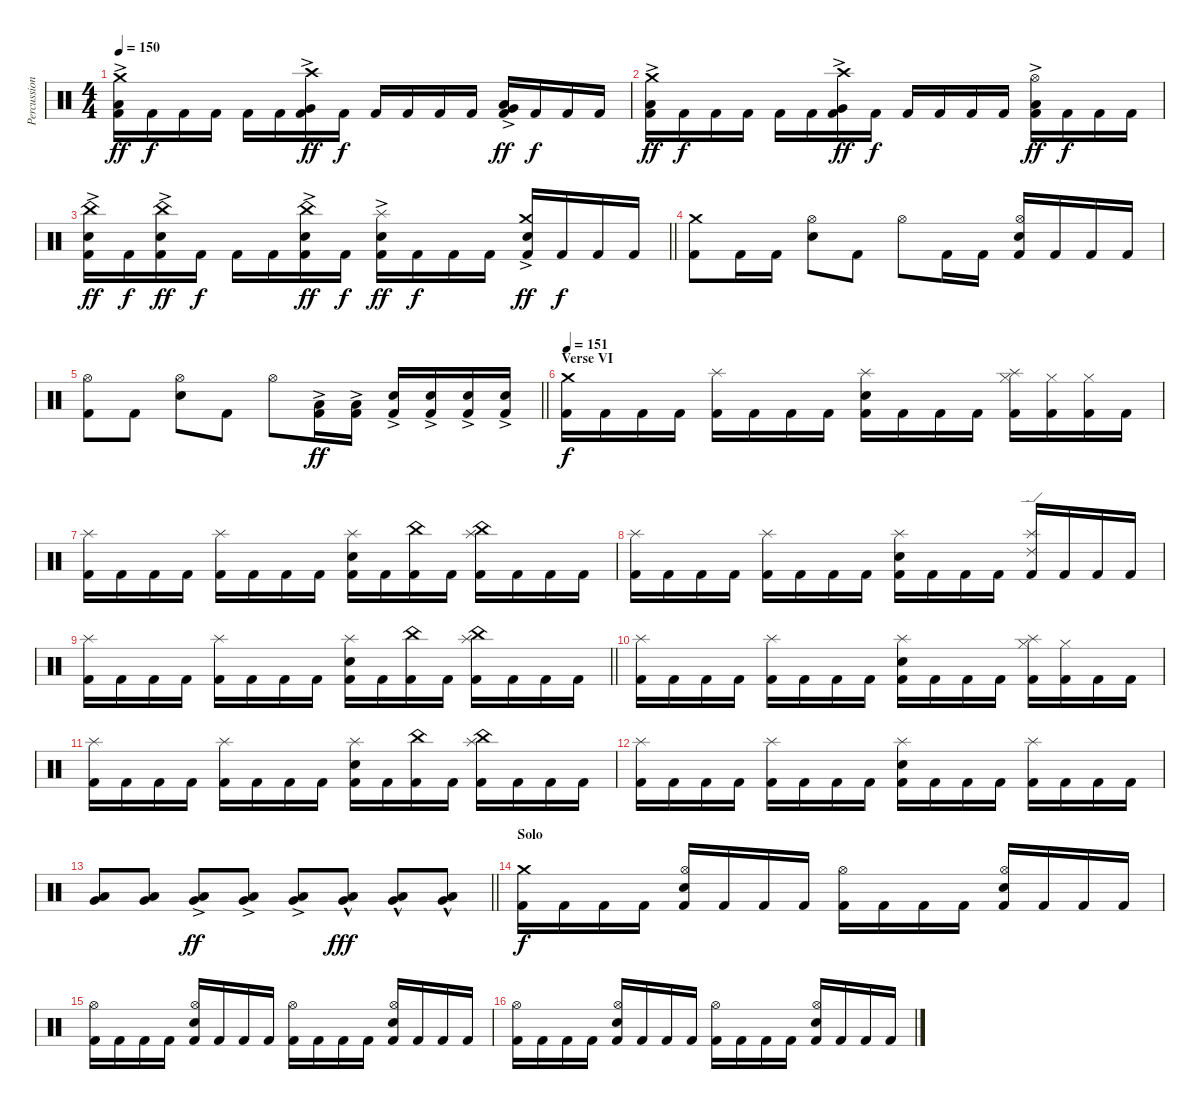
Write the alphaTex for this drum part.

\track ("Percussion" "Percussion") {instrument percussion}
\staff {score}
\articulation defaults
\ts (4 4)
\tempo 150
\clef neutral
\ks c
("Kick (hit) 2" "Low Tom (hit)"{ac} "Crash medium (hit)").16{dy ff} "Kick (hit) 2".16{dy f} "Kick (hit) 2".16 "Kick (hit) 2".16 "Kick (hit) 2".16 "Kick (hit) 2".16 ("Kick (hit) 2" "Very Low Tom (hit)"{ac} "Crash high (hit)").16{dy ff} "Kick (hit) 2".16{dy f} "Kick (hit) 2".16 "Kick (hit) 2".16 "Kick (hit) 2".16 "Kick (hit) 2".16 ("Kick (hit) 2" "Low Floor Tom (hit)"{ac} "Very Low Tom (hit)"{ac}).16{dy ff} "Kick (hit) 2".16{dy f} "Kick (hit) 2".16 "Kick (hit) 2".16 |
("Kick (hit) 2" "Low Tom (hit)"{ac} "Crash medium (hit)").16{dy ff} "Kick (hit) 2".16{dy f} "Kick (hit) 2".16 "Kick (hit) 2".16 "Kick (hit) 2".16 "Kick (hit) 2".16 ("Kick (hit) 2" "Very Low Tom (hit)"{ac} "Crash high (hit)").16{dy ff} "Kick (hit) 2".16{dy f} "Kick (hit) 2".16 "Kick (hit) 2".16 "Kick (hit) 2".16 "Kick (hit) 2".16 ("Kick (hit) 2" "Low Floor Tom (hit)"{ac} "Hi-Hat (open)").16{dy ff} "Kick (hit) 2".16{dy f} "Kick (hit) 2".16 "Kick (hit) 2".16 |
\barLineRight lightlight
("Kick (hit) 2" "Snare (hit) 2"{ac} "China (hit)").16{dy ff} "Kick (hit) 2".16{dy f} ("Kick (hit) 2" "Snare (hit) 2"{ac} "China (hit)").16{dy ff} "Kick (hit) 2".16{dy f} "Kick (hit) 2".16 "Kick (hit) 2".16 ("Kick (hit) 2" "Snare (hit) 2"{ac} "China (hit)").16{dy ff} "Kick (hit) 2".16{dy f} ("Kick (hit) 2" "Snare (hit) 2"{ac} "Splash (hit)").16{dy ff} "Kick (hit) 2".16{dy f} "Kick (hit) 2".16 "Kick (hit) 2".16 ("Kick (hit) 2" "Snare (hit) 2"{ac} "Crash medium (hit)").16{dy ff} "Kick (hit) 2".16{dy f} "Kick (hit) 2".16 "Kick (hit) 2".16 |
\section ("" "")
("Kick (hit) 2" "Crash medium (hit)").8 "Kick (hit) 2".16 "Kick (hit) 2".16 ("Snare (hit) 2" "Hi-Hat (open)").8 "Kick (hit) 2".8 "Hi-Hat (open)".8 "Kick (hit) 2".16 "Kick (hit) 2".16 ("Kick (hit) 2" "Snare (hit) 2" "Hi-Hat (open)").16 "Kick (hit) 2".16 "Kick (hit) 2".16 "Kick (hit) 2".16 |
\barLineRight lightlight
("Kick (hit) 2" "Hi-Hat (open)").8 "Kick (hit) 2".8 ("Snare (hit) 2" "Hi-Hat (open)").8 "Kick (hit) 2".8 "Hi-Hat (open)".8 ("Kick (hit) 2" "Low Tom (hit)"{ac}).16{dy ff} ("Kick (hit) 2" "Low Tom (hit)"{ac}).16 ("Kick (hit) 2" "Snare (hit) 2"{ac}).16 ("Kick (hit) 2" "Snare (hit) 2"{ac}).16 ("Kick (hit) 2" "Snare (hit) 2"{ac}).16 ("Kick (hit) 2" "Snare (hit) 2"{ac}).16 |
\section ("" "Verse VI")
\tempo 151
("Kick (hit) 2" "Crash medium (hit)").16{dy f} "Kick (hit) 2".16 "Kick (hit) 2".16 "Kick (hit) 2".16 ("Kick (hit) 2" "Splash (hit)").16 "Kick (hit) 2".16 "Kick (hit) 2".16 "Kick (hit) 2".16 ("Kick (hit) 2" "Snare (hit) 2" "Splash (hit)").16 "Kick (hit) 2".16 "Kick (hit) 2".16 "Kick (hit) 2".16 ("Kick (hit) 2" "Splash (hit)" "Hi-Hat (closed)").16 ("Kick (hit) 2" "Hi-Hat (closed)").16 ("Kick (hit) 2" "Hi-Hat (closed)").16 "Kick (hit) 2".16 |
("Kick (hit) 2" "Splash (hit)").16 "Kick (hit) 2".16 "Kick (hit) 2".16 "Kick (hit) 2".16 ("Kick (hit) 2" "Splash (hit)").16 "Kick (hit) 2".16 "Kick (hit) 2".16 "Kick (hit) 2".16 ("Kick (hit) 2" "Snare (hit) 2" "Splash (hit)").16 "Kick (hit) 2".16 ("Kick (hit) 2" "China (hit)").16 "Kick (hit) 2".16 ("Kick (hit) 2" "Splash (hit)" "China (hit)").16 "Kick (hit) 2".16 "Kick (hit) 2".16 "Kick (hit) 2".16 |
("Kick (hit) 2" "Splash (hit)").16 "Kick (hit) 2".16 "Kick (hit) 2".16 "Kick (hit) 2".16 ("Kick (hit) 2" "Splash (hit)").16 "Kick (hit) 2".16 "Kick (hit) 2".16 "Kick (hit) 2".16 ("Kick (hit) 2" "Snare (hit) 2" "Splash (hit)").16 "Kick (hit) 2".16 "Kick (hit) 2".16 "Kick (hit) 2".16 ("Kick (hit) 2" "Splash (hit)" "Ride (edge) 2").16 "Kick (hit) 2".16 "Kick (hit) 2".16 "Kick (hit) 2".16 |
\barLineRight lightlight
("Kick (hit) 2" "Splash (hit)").16 "Kick (hit) 2".16 "Kick (hit) 2".16 "Kick (hit) 2".16 ("Kick (hit) 2" "Splash (hit)").16 "Kick (hit) 2".16 "Kick (hit) 2".16 "Kick (hit) 2".16 ("Kick (hit) 2" "Snare (hit) 2" "Splash (hit)").16 "Kick (hit) 2".16 ("Kick (hit) 2" "China (hit)").16 "Kick (hit) 2".16 ("Kick (hit) 2" "Splash (hit)" "China (hit)").16 "Kick (hit) 2".16 "Kick (hit) 2".16 "Kick (hit) 2".16 |
\section ("" "")
("Kick (hit) 2" "Splash (hit)").16 "Kick (hit) 2".16 "Kick (hit) 2".16 "Kick (hit) 2".16 ("Kick (hit) 2" "Splash (hit)").16 "Kick (hit) 2".16 "Kick (hit) 2".16 "Kick (hit) 2".16 ("Kick (hit) 2" "Snare (hit) 2" "Splash (hit)").16 "Kick (hit) 2".16 "Kick (hit) 2".16 "Kick (hit) 2".16 ("Kick (hit) 2" "Splash (hit)" "Hi-Hat (closed)").16 ("Kick (hit) 2" "Hi-Hat (closed)").16 "Kick (hit) 2".16 "Kick (hit) 2".16 |
("Kick (hit) 2" "Splash (hit)").16 "Kick (hit) 2".16 "Kick (hit) 2".16 "Kick (hit) 2".16 ("Kick (hit) 2" "Splash (hit)").16 "Kick (hit) 2".16 "Kick (hit) 2".16 "Kick (hit) 2".16 ("Kick (hit) 2" "Snare (hit) 2" "Splash (hit)").16 "Kick (hit) 2".16 ("Kick (hit) 2" "China (hit)").16 "Kick (hit) 2".16 ("Kick (hit) 2" "Splash (hit)" "China (hit)").16 "Kick (hit) 2".16 "Kick (hit) 2".16 "Kick (hit) 2".16 |
("Kick (hit) 2" "Splash (hit)").16 "Kick (hit) 2".16 "Kick (hit) 2".16 "Kick (hit) 2".16 ("Kick (hit) 2" "Splash (hit)").16 "Kick (hit) 2".16 "Kick (hit) 2".16 "Kick (hit) 2".16 ("Kick (hit) 2" "Snare (hit) 2" "Splash (hit)").16 "Kick (hit) 2".16 "Kick (hit) 2".16 "Kick (hit) 2".16 ("Kick (hit) 2" "Splash (hit)").16 "Kick (hit) 2".16 "Kick (hit) 2".16 "Kick (hit) 2".16 |
\barLineRight lightlight
("Very Low Tom (hit)" "Low Floor Tom (hit)").8 ("Very Low Tom (hit)" "Low Floor Tom (hit)").8 ("Very Low Tom (hit)"{ac} "Low Floor Tom (hit)"{ac}).8{dy ff} ("Very Low Tom (hit)"{ac} "Low Floor Tom (hit)"{ac}).8 ("Very Low Tom (hit)"{ac} "Low Floor Tom (hit)"{ac}).8 ("Very Low Tom (hit)"{hac} "Low Floor Tom (hit)"{hac}).8{dy fff} ("Very Low Tom (hit)"{hac} "Low Floor Tom (hit)"{hac}).8 ("Very Low Tom (hit)"{hac} "Low Floor Tom (hit)"{hac}).8 |
\section ("" "Solo")
("Kick (hit) 2" "Crash medium (hit)").16{dy f} "Kick (hit) 2".16 "Kick (hit) 2".16 "Kick (hit) 2".16 ("Kick (hit) 2" "Snare (hit) 2" "Hi-Hat (open)").16 "Kick (hit) 2".16 "Kick (hit) 2".16 "Kick (hit) 2".16 ("Kick (hit) 2" "Hi-Hat (open)").16 "Kick (hit) 2".16 "Kick (hit) 2".16 "Kick (hit) 2".16 ("Kick (hit) 2" "Snare (hit) 2" "Hi-Hat (open)").16 "Kick (hit) 2".16 "Kick (hit) 2".16 "Kick (hit) 2".16 |
("Kick (hit) 2" "Hi-Hat (open)").16 "Kick (hit) 2".16 "Kick (hit) 2".16 "Kick (hit) 2".16 ("Kick (hit) 2" "Snare (hit) 2" "Hi-Hat (open)").16 "Kick (hit) 2".16 "Kick (hit) 2".16 "Kick (hit) 2".16 ("Kick (hit) 2" "Hi-Hat (open)").16 "Kick (hit) 2".16 "Kick (hit) 2".16 "Kick (hit) 2".16 ("Kick (hit) 2" "Snare (hit) 2" "Hi-Hat (open)").16 "Kick (hit) 2".16 "Kick (hit) 2".16 "Kick (hit) 2".16 |
("Kick (hit) 2" "Hi-Hat (open)").16 "Kick (hit) 2".16 "Kick (hit) 2".16 "Kick (hit) 2".16 ("Kick (hit) 2" "Snare (hit) 2" "Hi-Hat (open)").16 "Kick (hit) 2".16 "Kick (hit) 2".16 "Kick (hit) 2".16 ("Kick (hit) 2" "Hi-Hat (open)").16 "Kick (hit) 2".16 "Kick (hit) 2".16 "Kick (hit) 2".16 ("Kick (hit) 2" "Snare (hit) 2" "Hi-Hat (open)").16 "Kick (hit) 2".16 "Kick (hit) 2".16 "Kick (hit) 2".16
